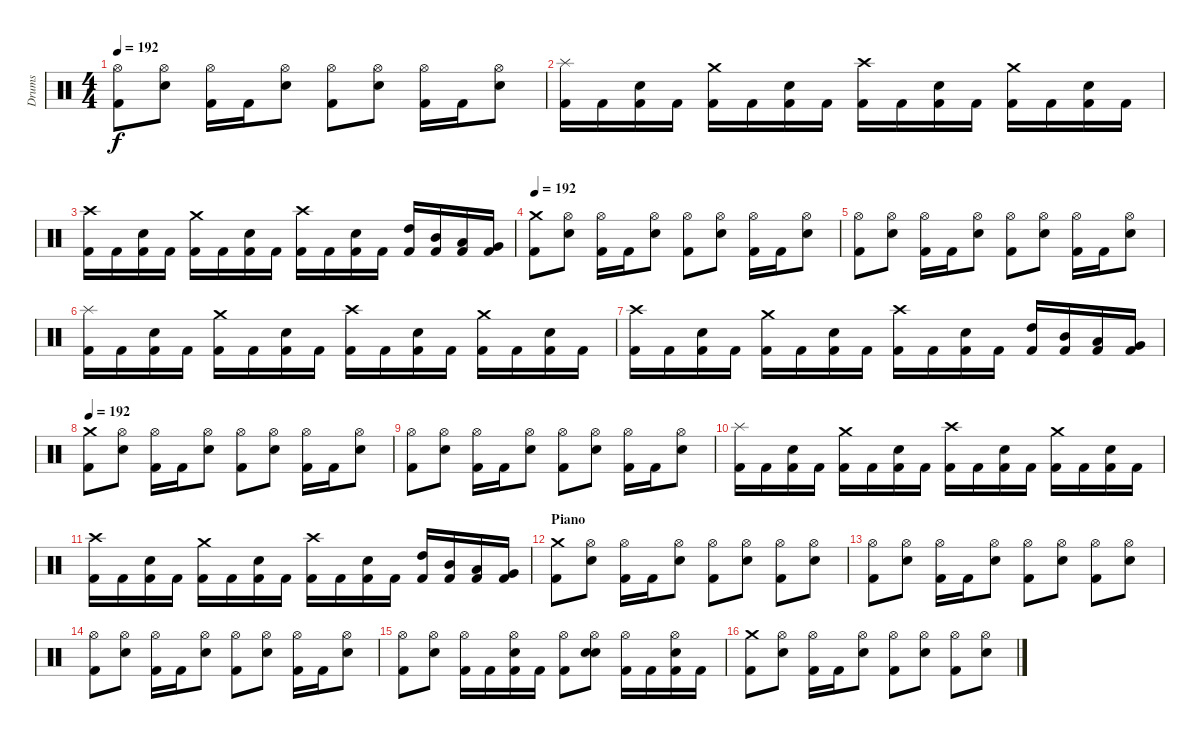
\track ("Drums" "Drums") {instrument percussion}
\staff {score}
\articulation defaults
\ts (4 4)
\tempo 192
\clef neutral
\ks c
("Kick (hit) 2" "Hi-Hat (open)").8{dy f} ("Snare (hit) 2" "Hi-Hat (open)").8 ("Kick (hit) 2" "Hi-Hat (open)").16 "Kick (hit) 2".16 ("Snare (hit) 2" "Hi-Hat (open)").8 ("Kick (hit) 2" "Hi-Hat (open)").8 ("Snare (hit) 2" "Hi-Hat (open)").8 ("Kick (hit) 2" "Hi-Hat (open)").16 "Kick (hit) 2".16 ("Snare (hit) 2" "Hi-Hat (open)").8 |
("Kick (hit) 2" "Splash (hit)").16 "Kick (hit) 2".16 ("Kick (hit) 2" "Snare (hit) 2").16 "Kick (hit) 2".16 ("Kick (hit) 2" "Crash medium (hit)").16 "Kick (hit) 2".16 ("Kick (hit) 2" "Snare (hit) 2").16 "Kick (hit) 2".16 ("Kick (hit) 2" "Crash high (hit)").16 "Kick (hit) 2".16 ("Kick (hit) 2" "Snare (hit) 2").16 "Kick (hit) 2".16 ("Kick (hit) 2" "Crash medium (hit)").16 "Kick (hit) 2".16 ("Kick (hit) 2" "Snare (hit) 2").16 "Kick (hit) 2".16 |
("Kick (hit) 2" "Crash high (hit)").16 "Kick (hit) 2".16 ("Kick (hit) 2" "Snare (hit) 2").16 "Kick (hit) 2".16 ("Kick (hit) 2" "Crash medium (hit)").16 "Kick (hit) 2".16 ("Kick (hit) 2" "Snare (hit) 2").16 "Kick (hit) 2".16 ("Kick (hit) 2" "Crash high (hit)").16 "Kick (hit) 2".16 ("Kick (hit) 2" "Snare (hit) 2").16 "Kick (hit) 2".16 ("Kick (hit) 2" "High Tom (hit)").16 ("Kick (hit) 2" "Mid Tom (hit)").16 ("Kick (hit) 2" "Low Tom (hit)").16 ("Kick (hit) 2" "Very Low Tom (hit)").16 |
\section ("" "")
\tempo 192
("Kick (hit) 2" "Crash medium (hit)").8 ("Snare (hit) 2" "Hi-Hat (open)").8 ("Kick (hit) 2" "Hi-Hat (open)").16 "Kick (hit) 2".16 ("Snare (hit) 2" "Hi-Hat (open)").8 ("Kick (hit) 2" "Hi-Hat (open)").8 ("Snare (hit) 2" "Hi-Hat (open)").8 ("Kick (hit) 2" "Hi-Hat (open)").16 "Kick (hit) 2".16 ("Snare (hit) 2" "Hi-Hat (open)").8 |
("Kick (hit) 2" "Hi-Hat (open)").8 ("Snare (hit) 2" "Hi-Hat (open)").8 ("Kick (hit) 2" "Hi-Hat (open)").16 "Kick (hit) 2".16 ("Snare (hit) 2" "Hi-Hat (open)").8 ("Kick (hit) 2" "Hi-Hat (open)").8 ("Snare (hit) 2" "Hi-Hat (open)").8 ("Kick (hit) 2" "Hi-Hat (open)").16 "Kick (hit) 2".16 ("Snare (hit) 2" "Hi-Hat (open)").8 |
("Kick (hit) 2" "Splash (hit)").16 "Kick (hit) 2".16 ("Kick (hit) 2" "Snare (hit) 2").16 "Kick (hit) 2".16 ("Kick (hit) 2" "Crash medium (hit)").16 "Kick (hit) 2".16 ("Kick (hit) 2" "Snare (hit) 2").16 "Kick (hit) 2".16 ("Kick (hit) 2" "Crash high (hit)").16 "Kick (hit) 2".16 ("Kick (hit) 2" "Snare (hit) 2").16 "Kick (hit) 2".16 ("Kick (hit) 2" "Crash medium (hit)").16 "Kick (hit) 2".16 ("Kick (hit) 2" "Snare (hit) 2").16 "Kick (hit) 2".16 |
("Kick (hit) 2" "Crash high (hit)").16 "Kick (hit) 2".16 ("Kick (hit) 2" "Snare (hit) 2").16 "Kick (hit) 2".16 ("Kick (hit) 2" "Crash medium (hit)").16 "Kick (hit) 2".16 ("Kick (hit) 2" "Snare (hit) 2").16 "Kick (hit) 2".16 ("Kick (hit) 2" "Crash high (hit)").16 "Kick (hit) 2".16 ("Kick (hit) 2" "Snare (hit) 2").16 "Kick (hit) 2".16 ("Kick (hit) 2" "High Tom (hit)").16 ("Kick (hit) 2" "Mid Tom (hit)").16 ("Kick (hit) 2" "Low Tom (hit)").16 ("Kick (hit) 2" "Very Low Tom (hit)").16 |
\tempo 192
("Kick (hit) 2" "Crash medium (hit)").8 ("Snare (hit) 2" "Hi-Hat (open)").8 ("Kick (hit) 2" "Hi-Hat (open)").16 "Kick (hit) 2".16 ("Snare (hit) 2" "Hi-Hat (open)").8 ("Kick (hit) 2" "Hi-Hat (open)").8 ("Snare (hit) 2" "Hi-Hat (open)").8 ("Kick (hit) 2" "Hi-Hat (open)").16 "Kick (hit) 2".16 ("Snare (hit) 2" "Hi-Hat (open)").8 |
("Kick (hit) 2" "Hi-Hat (open)").8 ("Snare (hit) 2" "Hi-Hat (open)").8 ("Kick (hit) 2" "Hi-Hat (open)").16 "Kick (hit) 2".16 ("Snare (hit) 2" "Hi-Hat (open)").8 ("Kick (hit) 2" "Hi-Hat (open)").8 ("Snare (hit) 2" "Hi-Hat (open)").8 ("Kick (hit) 2" "Hi-Hat (open)").16 "Kick (hit) 2".16 ("Snare (hit) 2" "Hi-Hat (open)").8 |
("Kick (hit) 2" "Splash (hit)").16 "Kick (hit) 2".16 ("Kick (hit) 2" "Snare (hit) 2").16 "Kick (hit) 2".16 ("Kick (hit) 2" "Crash medium (hit)").16 "Kick (hit) 2".16 ("Kick (hit) 2" "Snare (hit) 2").16 "Kick (hit) 2".16 ("Kick (hit) 2" "Crash high (hit)").16 "Kick (hit) 2".16 ("Kick (hit) 2" "Snare (hit) 2").16 "Kick (hit) 2".16 ("Kick (hit) 2" "Crash medium (hit)").16 "Kick (hit) 2".16 ("Kick (hit) 2" "Snare (hit) 2").16 "Kick (hit) 2".16 |
("Kick (hit) 2" "Crash high (hit)").16 "Kick (hit) 2".16 ("Kick (hit) 2" "Snare (hit) 2").16 "Kick (hit) 2".16 ("Kick (hit) 2" "Crash medium (hit)").16 "Kick (hit) 2".16 ("Kick (hit) 2" "Snare (hit) 2").16 "Kick (hit) 2".16 ("Kick (hit) 2" "Crash high (hit)").16 "Kick (hit) 2".16 ("Kick (hit) 2" "Snare (hit) 2").16 "Kick (hit) 2".16 ("Kick (hit) 2" "High Tom (hit)").16 ("Kick (hit) 2" "Mid Tom (hit)").16 ("Kick (hit) 2" "Low Tom (hit)").16 ("Kick (hit) 2" "Very Low Tom (hit)").16 |
\section ("" "Piano")
("Kick (hit) 2" "Crash medium (hit)").8 ("Snare (hit) 2" "Hi-Hat (open)").8 ("Kick (hit) 2" "Hi-Hat (open)").16 "Kick (hit) 2".16 ("Snare (hit) 2" "Hi-Hat (open)").8 ("Kick (hit) 2" "Hi-Hat (open)").8 ("Snare (hit) 2" "Hi-Hat (open)").8 ("Kick (hit) 2" "Hi-Hat (open)").8 ("Snare (hit) 2" "Hi-Hat (open)").8 |
("Kick (hit) 2" "Hi-Hat (open)").8 ("Snare (hit) 2" "Hi-Hat (open)").8 ("Kick (hit) 2" "Hi-Hat (open)").16 "Kick (hit) 2".16 ("Snare (hit) 2" "Hi-Hat (open)").8 ("Kick (hit) 2" "Hi-Hat (open)").8 ("Snare (hit) 2" "Hi-Hat (open)").8 ("Kick (hit) 2" "Hi-Hat (open)").8 ("Snare (hit) 2" "Hi-Hat (open)").8 |
("Kick (hit) 2" "Hi-Hat (open)").8 ("Snare (hit) 2" "Hi-Hat (open)").8 ("Kick (hit) 2" "Hi-Hat (open)").16 "Kick (hit) 2".16 ("Snare (hit) 2" "Hi-Hat (open)").8 ("Kick (hit) 2" "Hi-Hat (open)").8 ("Snare (hit) 2" "Hi-Hat (open)").8 ("Kick (hit) 2" "Hi-Hat (open)").16 "Kick (hit) 2".16 ("Snare (hit) 2" "Hi-Hat (open)").8 |
("Kick (hit) 2" "Hi-Hat (open)").8 ("Snare (hit) 2" "Hi-Hat (open)").8 ("Kick (hit) 2" "Hi-Hat (open)").16 "Kick (hit) 2".16 ("Kick (hit) 2" "Snare (hit) 2" "Hi-Hat (open)").16 "Kick (hit) 2".16 ("Kick (hit) 2" "Hi-Hat (open)").8 ("Snare (hit) 2" "Snare (hit) 2" "Hi-Hat (open)").8 ("Kick (hit) 2" "Hi-Hat (open)").16 "Kick (hit) 2".16 ("Kick (hit) 2" "Snare (hit) 2" "Hi-Hat (open)").16 "Kick (hit) 2".16 |
("Kick (hit) 2" "Crash medium (hit)").8 ("Snare (hit) 2" "Hi-Hat (open)").8 ("Kick (hit) 2" "Hi-Hat (open)").16 "Kick (hit) 2".16 ("Snare (hit) 2" "Hi-Hat (open)").8 ("Kick (hit) 2" "Hi-Hat (open)").8 ("Snare (hit) 2" "Hi-Hat (open)").8 ("Kick (hit) 2" "Hi-Hat (open)").8 ("Snare (hit) 2" "Hi-Hat (open)").8
